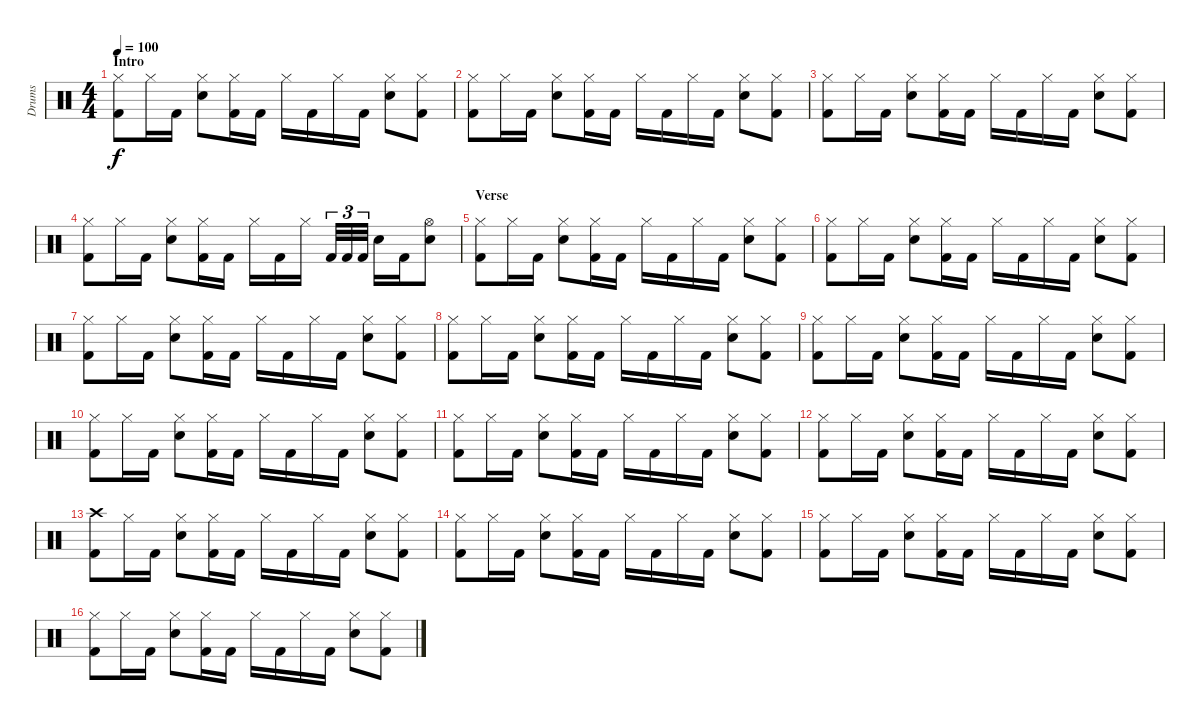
\track ("Drums" "Drums") {instrument percussion}
\staff {score}
\articulation defaults
\ts (4 4)
\section ("" "Intro")
\tempo 100
\clef neutral
\ks c
("Hi-Hat (closed)" "Kick (hit) 2").8{dy f} "Hi-Hat (closed)".16 "Kick (hit) 2".16 ("Hi-Hat (closed)" "Electric Snare (hit)").8 ("Hi-Hat (closed)" "Kick (hit) 2").16 "Kick (hit) 2".16 "Hi-Hat (closed)".16 "Kick (hit) 2".16 "Hi-Hat (closed)".16 "Kick (hit) 2".16 ("Hi-Hat (closed)" "Electric Snare (hit)").8 ("Hi-Hat (closed)" "Kick (hit) 2").8 |
("Hi-Hat (closed)" "Kick (hit) 2").8 "Hi-Hat (closed)".16 "Kick (hit) 2".16 ("Hi-Hat (closed)" "Electric Snare (hit)").8 ("Hi-Hat (closed)" "Kick (hit) 2").16 "Kick (hit) 2".16 "Hi-Hat (closed)".16 "Kick (hit) 2".16 "Hi-Hat (closed)".16 "Kick (hit) 2".16 ("Hi-Hat (closed)" "Electric Snare (hit)").8 ("Hi-Hat (closed)" "Kick (hit) 2").8 |
("Hi-Hat (closed)" "Kick (hit) 2").8 "Hi-Hat (closed)".16 "Kick (hit) 2".16 ("Hi-Hat (closed)" "Electric Snare (hit)").8 ("Hi-Hat (closed)" "Kick (hit) 2").16 "Kick (hit) 2".16 "Hi-Hat (closed)".16 "Kick (hit) 2".16 "Hi-Hat (closed)".16 "Kick (hit) 2".16 ("Hi-Hat (closed)" "Electric Snare (hit)").8 ("Hi-Hat (closed)" "Kick (hit) 2").8 |
("Hi-Hat (closed)" "Kick (hit) 2").8 "Hi-Hat (closed)".16 "Kick (hit) 2".16 ("Hi-Hat (closed)" "Electric Snare (hit)").8 ("Hi-Hat (closed)" "Kick (hit) 2").16 "Kick (hit) 2".16 "Hi-Hat (closed)".16 "Kick (hit) 2".16 "Hi-Hat (closed)".16 "Kick (hit) 2".32{tu (3 2)} "Kick (hit) 2".32{tu (3 2)} "Kick (hit) 2".32{tu (3 2)} "Electric Snare (hit)".16 "Kick (hit) 2".16 ("Hi-Hat (open)" "Electric Snare (hit)").8 |
\section ("" "Verse")
("Hi-Hat (closed)" "Kick (hit) 2").8 "Hi-Hat (closed)".16 "Kick (hit) 2".16 ("Hi-Hat (closed)" "Electric Snare (hit)").8 ("Hi-Hat (closed)" "Kick (hit) 2").16 "Kick (hit) 2".16 "Hi-Hat (closed)".16 "Kick (hit) 2".16 "Hi-Hat (closed)".16 "Kick (hit) 2".16 ("Hi-Hat (closed)" "Electric Snare (hit)").8 ("Hi-Hat (closed)" "Kick (hit) 2").8 |
("Hi-Hat (closed)" "Kick (hit) 2").8 "Hi-Hat (closed)".16 "Kick (hit) 2".16 ("Hi-Hat (closed)" "Electric Snare (hit)").8 ("Hi-Hat (closed)" "Kick (hit) 2").16 "Kick (hit) 2".16 "Hi-Hat (closed)".16 "Kick (hit) 2".16 "Hi-Hat (closed)".16 "Kick (hit) 2".16 ("Hi-Hat (closed)" "Electric Snare (hit)").8 ("Hi-Hat (closed)" "Kick (hit) 2").8 |
("Hi-Hat (closed)" "Kick (hit) 2").8 "Hi-Hat (closed)".16 "Kick (hit) 2".16 ("Hi-Hat (closed)" "Electric Snare (hit)").8 ("Hi-Hat (closed)" "Kick (hit) 2").16 "Kick (hit) 2".16 "Hi-Hat (closed)".16 "Kick (hit) 2".16 "Hi-Hat (closed)".16 "Kick (hit) 2".16 ("Hi-Hat (closed)" "Electric Snare (hit)").8 ("Hi-Hat (closed)" "Kick (hit) 2").8 |
("Hi-Hat (closed)" "Kick (hit) 2").8 "Hi-Hat (closed)".16 "Kick (hit) 2".16 ("Hi-Hat (closed)" "Electric Snare (hit)").8 ("Hi-Hat (closed)" "Kick (hit) 2").16 "Kick (hit) 2".16 "Hi-Hat (closed)".16 "Kick (hit) 2".16 "Hi-Hat (closed)".16 "Kick (hit) 2".16 ("Hi-Hat (closed)" "Electric Snare (hit)").8 ("Hi-Hat (closed)" "Kick (hit) 2").8 |
("Hi-Hat (closed)" "Kick (hit) 2").8 "Hi-Hat (closed)".16 "Kick (hit) 2".16 ("Hi-Hat (closed)" "Electric Snare (hit)").8 ("Hi-Hat (closed)" "Kick (hit) 2").16 "Kick (hit) 2".16 "Hi-Hat (closed)".16 "Kick (hit) 2".16 "Hi-Hat (closed)".16 "Kick (hit) 2".16 ("Hi-Hat (closed)" "Electric Snare (hit)").8 ("Hi-Hat (closed)" "Kick (hit) 2").8 |
("Hi-Hat (closed)" "Kick (hit) 2").8 "Hi-Hat (closed)".16 "Kick (hit) 2".16 ("Hi-Hat (closed)" "Electric Snare (hit)").8 ("Hi-Hat (closed)" "Kick (hit) 2").16 "Kick (hit) 2".16 "Hi-Hat (closed)".16 "Kick (hit) 2".16 "Hi-Hat (closed)".16 "Kick (hit) 2".16 ("Hi-Hat (closed)" "Electric Snare (hit)").8 ("Hi-Hat (closed)" "Kick (hit) 2").8 |
("Hi-Hat (closed)" "Kick (hit) 2").8 "Hi-Hat (closed)".16 "Kick (hit) 2".16 ("Hi-Hat (closed)" "Electric Snare (hit)").8 ("Hi-Hat (closed)" "Kick (hit) 2").16 "Kick (hit) 2".16 "Hi-Hat (closed)".16 "Kick (hit) 2".16 "Hi-Hat (closed)".16 "Kick (hit) 2".16 ("Hi-Hat (closed)" "Electric Snare (hit)").8 ("Hi-Hat (closed)" "Kick (hit) 2").8 |
("Hi-Hat (closed)" "Kick (hit) 2").8 "Hi-Hat (closed)".16 "Kick (hit) 2".16 ("Hi-Hat (closed)" "Electric Snare (hit)").8 ("Hi-Hat (closed)" "Kick (hit) 2").16 "Kick (hit) 2".16 "Hi-Hat (closed)".16 "Kick (hit) 2".16 "Hi-Hat (closed)".16 "Kick (hit) 2".16 ("Hi-Hat (closed)" "Electric Snare (hit)").8 ("Hi-Hat (closed)" "Kick (hit) 2").8 |
("Crash high (hit)" "Kick (hit) 2").8 "Hi-Hat (closed)".16 "Kick (hit) 2".16 ("Hi-Hat (closed)" "Electric Snare (hit)").8 ("Hi-Hat (closed)" "Kick (hit) 2").16 "Kick (hit) 2".16 "Hi-Hat (closed)".16 "Kick (hit) 2".16 "Hi-Hat (closed)".16 "Kick (hit) 2".16 ("Hi-Hat (closed)" "Electric Snare (hit)").8 ("Hi-Hat (closed)" "Kick (hit) 2").8 |
("Hi-Hat (closed)" "Kick (hit) 2").8 "Hi-Hat (closed)".16 "Kick (hit) 2".16 ("Hi-Hat (closed)" "Electric Snare (hit)").8 ("Hi-Hat (closed)" "Kick (hit) 2").16 "Kick (hit) 2".16 "Hi-Hat (closed)".16 "Kick (hit) 2".16 "Hi-Hat (closed)".16 "Kick (hit) 2".16 ("Hi-Hat (closed)" "Electric Snare (hit)").8 ("Hi-Hat (closed)" "Kick (hit) 2").8 |
("Hi-Hat (closed)" "Kick (hit) 2").8 "Hi-Hat (closed)".16 "Kick (hit) 2".16 ("Hi-Hat (closed)" "Electric Snare (hit)").8 ("Hi-Hat (closed)" "Kick (hit) 2").16 "Kick (hit) 2".16 "Hi-Hat (closed)".16 "Kick (hit) 2".16 "Hi-Hat (closed)".16 "Kick (hit) 2".16 ("Hi-Hat (closed)" "Electric Snare (hit)").8 ("Hi-Hat (closed)" "Kick (hit) 2").8 |
("Hi-Hat (closed)" "Kick (hit) 2").8 "Hi-Hat (closed)".16 "Kick (hit) 2".16 ("Hi-Hat (closed)" "Electric Snare (hit)").8 ("Hi-Hat (closed)" "Kick (hit) 2").16 "Kick (hit) 2".16 "Hi-Hat (closed)".16 "Kick (hit) 2".16 "Hi-Hat (closed)".16 "Kick (hit) 2".16 ("Hi-Hat (closed)" "Electric Snare (hit)").8 ("Hi-Hat (closed)" "Kick (hit) 2").8
